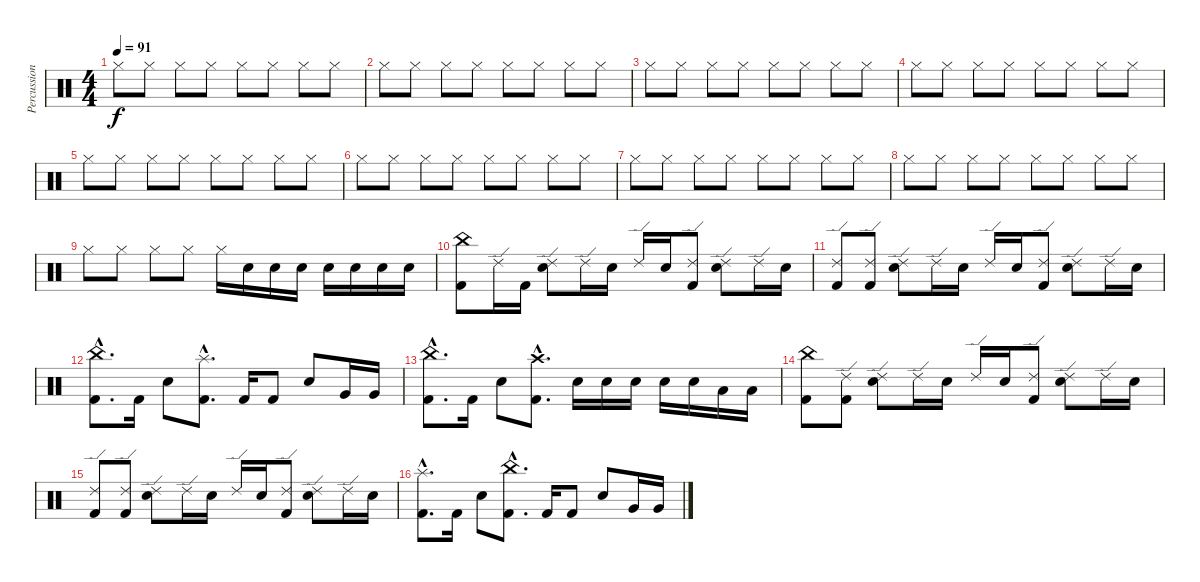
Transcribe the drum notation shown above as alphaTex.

\track ("Percussion" "Percussion") {instrument percussion}
\staff {score}
\articulation defaults
\ts (4 4)
\tempo 91
\clef neutral
\ks c "Hi-Hat (closed)".8{dy f} "Hi-Hat (closed)".8 "Hi-Hat (closed)".8 "Hi-Hat (closed)".8 "Hi-Hat (closed)".8 "Hi-Hat (closed)".8 "Hi-Hat (closed)".8 "Hi-Hat (closed)".8
|
"Hi-Hat (closed)".8 "Hi-Hat (closed)".8 "Hi-Hat (closed)".8 "Hi-Hat (closed)".8 "Hi-Hat (closed)".8 "Hi-Hat (closed)".8 "Hi-Hat (closed)".8 "Hi-Hat (closed)".8 |
"Hi-Hat (closed)".8 "Hi-Hat (closed)".8 "Hi-Hat (closed)".8 "Hi-Hat (closed)".8 "Hi-Hat (closed)".8 "Hi-Hat (closed)".8 "Hi-Hat (closed)".8 "Hi-Hat (closed)".8 |
"Hi-Hat (closed)".8 "Hi-Hat (closed)".8 "Hi-Hat (closed)".8 "Hi-Hat (closed)".8 "Hi-Hat (closed)".8 "Hi-Hat (closed)".8 "Hi-Hat (closed)".8 "Hi-Hat (closed)".8 |
"Hi-Hat (closed)".8 "Hi-Hat (closed)".8 "Hi-Hat (closed)".8 "Hi-Hat (closed)".8 "Hi-Hat (closed)".8 "Hi-Hat (closed)".8 "Hi-Hat (closed)".8 "Hi-Hat (closed)".8 |
"Hi-Hat (closed)".8 "Hi-Hat (closed)".8 "Hi-Hat (closed)".8 "Hi-Hat (closed)".8 "Hi-Hat (closed)".8 "Hi-Hat (closed)".8 "Hi-Hat (closed)".8 "Hi-Hat (closed)".8 |
"Hi-Hat (closed)".8 "Hi-Hat (closed)".8 "Hi-Hat (closed)".8 "Hi-Hat (closed)".8 "Hi-Hat (closed)".8 "Hi-Hat (closed)".8 "Hi-Hat (closed)".8 "Hi-Hat (closed)".8 |
"Hi-Hat (closed)".8 "Hi-Hat (closed)".8 "Hi-Hat (closed)".8 "Hi-Hat (closed)".8 "Hi-Hat (closed)".8 "Hi-Hat (closed)".8 "Hi-Hat (closed)".8 "Hi-Hat (closed)".8 |
"Hi-Hat (closed)".8 "Hi-Hat (closed)".8 "Hi-Hat (closed)".8 "Hi-Hat (closed)".8 "Hi-Hat (closed)".16 "Electric Snare (hit)".16 "Electric Snare (hit)".16 "Electric Snare (hit)".16 "Electric Snare (hit)".16 "Electric Snare (hit)".16 "Electric Snare (hit)".16 "Electric Snare (hit)".16 |
("Kick (hit) 2" "China (hit)").8 "Ride (edge) 2".16 "Kick (hit) 2".16 ("Electric Snare (hit)" "Ride (edge) 2").8 "Ride (edge) 2".16 "Electric Snare (hit)".16 "Ride (edge) 2".16 "Electric Snare (hit)".16 ("Kick (hit) 2" "Ride (edge) 2").8 ("Ride (edge) 2" "Electric Snare (hit)").8 "Ride (edge) 2".16 "Electric Snare (hit)".16 |
("Kick (hit) 2" "Ride (edge) 2").8 ("Kick (hit) 2" "Ride (edge) 2").8 ("Ride (edge) 2" "Electric Snare (hit)").8 "Ride (edge) 2".16 "Electric Snare (hit)".16 "Ride (edge) 2".16 "Electric Snare (hit)".16 ("Kick (hit) 2" "Ride (edge) 2").8 ("Electric Snare (hit)" "Ride (edge) 2").8 "Ride (edge) 2".16 "Electric Snare (hit)".16 |
("China (hit)"{hac} "Kick (hit) 2"{hac}).8{d} "Kick (hit) 2".16 "Electric Snare (hit)".8 ("Kick (hit) 2"{hac} "Splash (hit)"{hac}).8{d} "Kick (hit) 2".16 "Kick (hit) 2".8 "Electric Snare (hit)".8 "Very Low Tom (hit)".16 "Very Low Tom (hit)".16 |
("China (hit)"{hac} "Kick (hit) 2"{hac}).8{d} "Kick (hit) 2".16 "Electric Snare (hit)".8 ("Kick (hit) 2"{hac} "Crash high (hit)"{hac}).8{d} "Electric Snare (hit)".16 "Electric Snare (hit)".16 "Electric Snare (hit)".16 "Electric Snare (hit)".16 "Electric Snare (hit)".16 "Low Tom (hit)".16 "Low Tom (hit)".16 |
("Kick (hit) 2" "China (hit)").8 ("Ride (edge) 2" "Kick (hit) 2").8 ("Ride (edge) 2" "Electric Snare (hit)").8 "Ride (edge) 2".16 "Electric Snare (hit)".16 "Ride (edge) 2".16 "Electric Snare (hit)".16 ("Ride (edge) 2" "Kick (hit) 2").8 ("Ride (edge) 2" "Electric Snare (hit)").8 "Ride (edge) 2".16 "Electric Snare (hit)".16 |
("Kick (hit) 2" "Ride (edge) 2").8 ("Ride (edge) 2" "Kick (hit) 2").8 ("Ride (edge) 2" "Electric Snare (hit)").8 "Ride (edge) 2".16 "Electric Snare (hit)".16 "Ride (edge) 2".16 "Electric Snare (hit)".16 ("Kick (hit) 2" "Ride (edge) 2").8 ("Electric Snare (hit)" "Ride (edge) 2").8 "Ride (edge) 2".16 "Electric Snare (hit)".16 |
("Kick (hit) 2"{hac} "Splash (hit)"{hac}).8{d} "Kick (hit) 2".16 "Electric Snare (hit)".8 ("Kick (hit) 2"{hac} "China (hit)"{hac}).8{d} "Kick (hit) 2".16 "Kick (hit) 2".8 "Electric Snare (hit)".8 "Very Low Tom (hit)".16 "Very Low Tom (hit)".16
